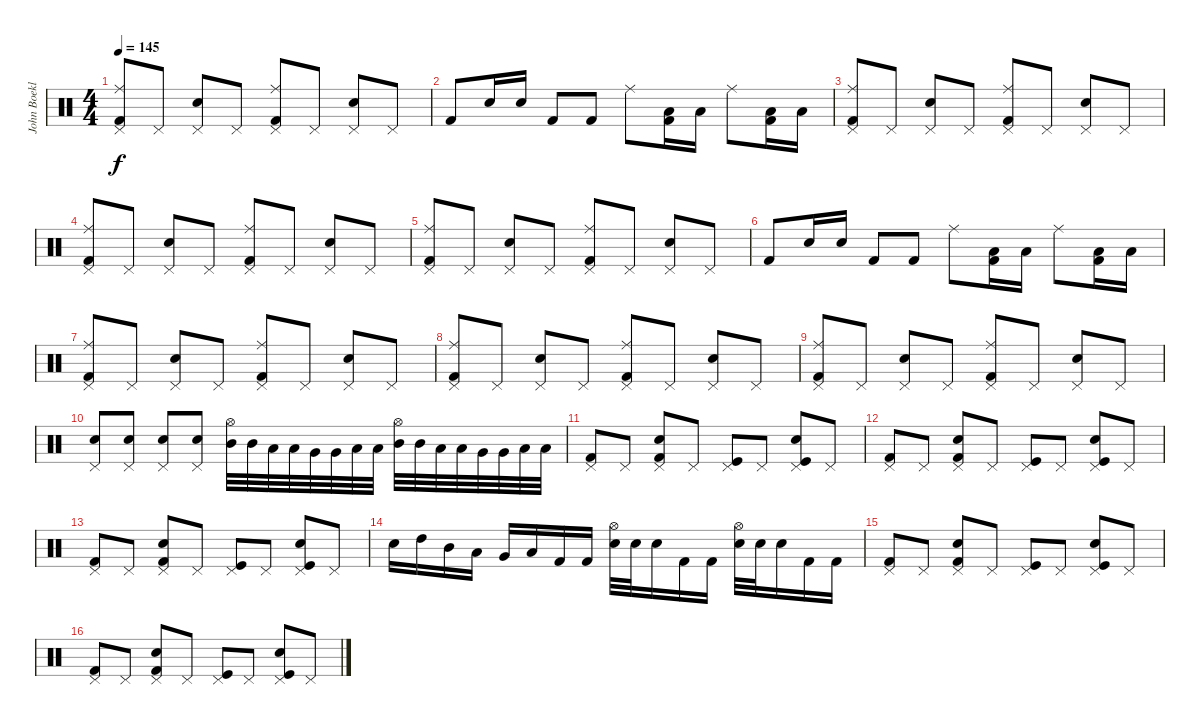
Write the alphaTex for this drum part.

\track ("John Boeklin" "John Boekl") {instrument percussion}
\staff {score}
\articulation defaults
\ts (4 4)
\tempo 145
\clef neutral
\ks c
("Pedal Hi-Hat (hit)" "Ride (middle)" "Kick (hit) 2").8{dy f} "Pedal Hi-Hat (hit)".8 ("Pedal Hi-Hat (hit)" "Electric Snare (hit)").8 "Pedal Hi-Hat (hit)".8 ("Pedal Hi-Hat (hit)" "Ride (middle)" "Kick (hit) 2").8 "Pedal Hi-Hat (hit)".8 ("Pedal Hi-Hat (hit)" "Electric Snare (hit)").8 "Pedal Hi-Hat (hit)".8 |
"Kick (hit) 2".8 "Electric Snare (hit)".16 "Electric Snare (hit)".16 "Kick (hit) 2".8 "Kick (hit) 2".8 "Ride (middle)".8 ("Low Floor Tom (hit)" "Kick (hit) 2").16 "Low Floor Tom (hit)".16 "Ride (middle)".8 ("Low Floor Tom (hit)" "Kick (hit) 2").16 "Low Floor Tom (hit)".16 |
("Pedal Hi-Hat (hit)" "Ride (middle)" "Kick (hit) 2").8 "Pedal Hi-Hat (hit)".8 ("Pedal Hi-Hat (hit)" "Electric Snare (hit)").8 "Pedal Hi-Hat (hit)".8 ("Pedal Hi-Hat (hit)" "Ride (middle)" "Kick (hit) 2").8 "Pedal Hi-Hat (hit)".8 ("Pedal Hi-Hat (hit)" "Electric Snare (hit)").8 "Pedal Hi-Hat (hit)".8 |
("Pedal Hi-Hat (hit)" "Ride (middle)" "Kick (hit) 2").8 "Pedal Hi-Hat (hit)".8 ("Pedal Hi-Hat (hit)" "Electric Snare (hit)").8 "Pedal Hi-Hat (hit)".8 ("Pedal Hi-Hat (hit)" "Ride (middle)" "Kick (hit) 2").8 "Pedal Hi-Hat (hit)".8 ("Pedal Hi-Hat (hit)" "Electric Snare (hit)").8 "Pedal Hi-Hat (hit)".8 |
("Pedal Hi-Hat (hit)" "Ride (middle)" "Kick (hit) 2").8 "Pedal Hi-Hat (hit)".8 ("Pedal Hi-Hat (hit)" "Electric Snare (hit)").8 "Pedal Hi-Hat (hit)".8 ("Pedal Hi-Hat (hit)" "Ride (middle)" "Kick (hit) 2").8 "Pedal Hi-Hat (hit)".8 ("Pedal Hi-Hat (hit)" "Electric Snare (hit)").8 "Pedal Hi-Hat (hit)".8 |
"Kick (hit) 2".8 "Electric Snare (hit)".16 "Electric Snare (hit)".16 "Kick (hit) 2".8 "Kick (hit) 2".8 "Ride (middle)".8 ("Low Floor Tom (hit)" "Kick (hit) 2").16 "Low Floor Tom (hit)".16 "Ride (middle)".8 ("Low Floor Tom (hit)" "Kick (hit) 2").16 "Low Floor Tom (hit)".16 |
("Pedal Hi-Hat (hit)" "Ride (middle)" "Kick (hit) 2").8 "Pedal Hi-Hat (hit)".8 ("Pedal Hi-Hat (hit)" "Electric Snare (hit)").8 "Pedal Hi-Hat (hit)".8 ("Pedal Hi-Hat (hit)" "Ride (middle)" "Kick (hit) 2").8 "Pedal Hi-Hat (hit)".8 ("Pedal Hi-Hat (hit)" "Electric Snare (hit)").8 "Pedal Hi-Hat (hit)".8 |
("Pedal Hi-Hat (hit)" "Ride (middle)" "Kick (hit) 2").8 "Pedal Hi-Hat (hit)".8 ("Pedal Hi-Hat (hit)" "Electric Snare (hit)").8 "Pedal Hi-Hat (hit)".8 ("Pedal Hi-Hat (hit)" "Ride (middle)" "Kick (hit) 2").8 "Pedal Hi-Hat (hit)".8 ("Pedal Hi-Hat (hit)" "Electric Snare (hit)").8 "Pedal Hi-Hat (hit)".8 |
("Pedal Hi-Hat (hit)" "Ride (middle)" "Kick (hit) 2").8 "Pedal Hi-Hat (hit)".8 ("Pedal Hi-Hat (hit)" "Electric Snare (hit)").8 "Pedal Hi-Hat (hit)".8 ("Pedal Hi-Hat (hit)" "Ride (middle)" "Kick (hit) 2").8 "Pedal Hi-Hat (hit)".8 ("Pedal Hi-Hat (hit)" "Electric Snare (hit)").8 "Pedal Hi-Hat (hit)".8 |
("Electric Snare (hit)" "Pedal Hi-Hat (hit)").8 ("Electric Snare (hit)" "Pedal Hi-Hat (hit)").8 ("Electric Snare (hit)" "Pedal Hi-Hat (hit)").8 ("Electric Snare (hit)" "Pedal Hi-Hat (hit)").8 ("Hi-Hat (open)" "Mid Tom (hit)").32 "Mid Tom (hit)".32 "Low Tom (hit)".32 "Low Tom (hit)".32 "Very Low Tom (hit)".32 "Very Low Tom (hit)".32 "Low Floor Tom (hit)".32 "Low Floor Tom (hit)".32 ("Hi-Hat (open)" "Mid Tom (hit)").32 "Mid Tom (hit)".32 "Low Tom (hit)".32 "Low Tom (hit)".32 "Very Low Tom (hit)".32 "Very Low Tom (hit)".32 "Low Floor Tom (hit)".32 "Low Floor Tom (hit)".32 |
("Pedal Hi-Hat (hit)" "Kick (hit) 2").8 "Pedal Hi-Hat (hit)".8 ("Pedal Hi-Hat (hit)" "Electric Snare (hit)" "Kick (hit) 2").8 "Pedal Hi-Hat (hit)".8 ("Pedal Hi-Hat (hit)" "Kick (hit)").8 "Pedal Hi-Hat (hit)".8 ("Pedal Hi-Hat (hit)" "Electric Snare (hit)" "Kick (hit)").8 "Pedal Hi-Hat (hit)".8 |
("Pedal Hi-Hat (hit)" "Kick (hit) 2").8 "Pedal Hi-Hat (hit)".8 ("Pedal Hi-Hat (hit)" "Electric Snare (hit)" "Kick (hit) 2").8 "Pedal Hi-Hat (hit)".8 ("Pedal Hi-Hat (hit)" "Kick (hit)").8 "Pedal Hi-Hat (hit)".8 ("Pedal Hi-Hat (hit)" "Electric Snare (hit)" "Kick (hit)").8 "Pedal Hi-Hat (hit)".8 |
("Pedal Hi-Hat (hit)" "Kick (hit) 2").8 "Pedal Hi-Hat (hit)".8 ("Pedal Hi-Hat (hit)" "Electric Snare (hit)" "Kick (hit) 2").8 "Pedal Hi-Hat (hit)".8 ("Pedal Hi-Hat (hit)" "Kick (hit)").8 "Pedal Hi-Hat (hit)".8 ("Pedal Hi-Hat (hit)" "Electric Snare (hit)" "Kick (hit)").8 "Pedal Hi-Hat (hit)".8 |
"Electric Snare (hit)".16 "High Tom (hit)".16 "Mid Tom (hit)".16 "Low Tom (hit)".16 "Very Low Tom (hit)".16 "Low Floor Tom (hit)".16 "Kick (hit) 2".16 "Kick (hit) 2".16 ("Hi-Hat (open)" "Electric Snare (hit)").32 "Electric Snare (hit)".32 "Electric Snare (hit)".16 "Kick (hit) 2".16 "Kick (hit) 2".16 ("Hi-Hat (open)" "Electric Snare (hit)").32 "Electric Snare (hit)".32 "Electric Snare (hit)".16 "Kick (hit) 2".16 "Kick (hit) 2".16 |
("Pedal Hi-Hat (hit)" "Kick (hit) 2").8 "Pedal Hi-Hat (hit)".8 ("Pedal Hi-Hat (hit)" "Electric Snare (hit)" "Kick (hit) 2").8 "Pedal Hi-Hat (hit)".8 ("Pedal Hi-Hat (hit)" "Kick (hit)").8 "Pedal Hi-Hat (hit)".8 ("Pedal Hi-Hat (hit)" "Electric Snare (hit)" "Kick (hit)").8 "Pedal Hi-Hat (hit)".8 |
("Pedal Hi-Hat (hit)" "Kick (hit) 2").8 "Pedal Hi-Hat (hit)".8 ("Pedal Hi-Hat (hit)" "Electric Snare (hit)" "Kick (hit) 2").8 "Pedal Hi-Hat (hit)".8 ("Pedal Hi-Hat (hit)" "Kick (hit)").8 "Pedal Hi-Hat (hit)".8 ("Pedal Hi-Hat (hit)" "Electric Snare (hit)" "Kick (hit)").8 "Pedal Hi-Hat (hit)".8
